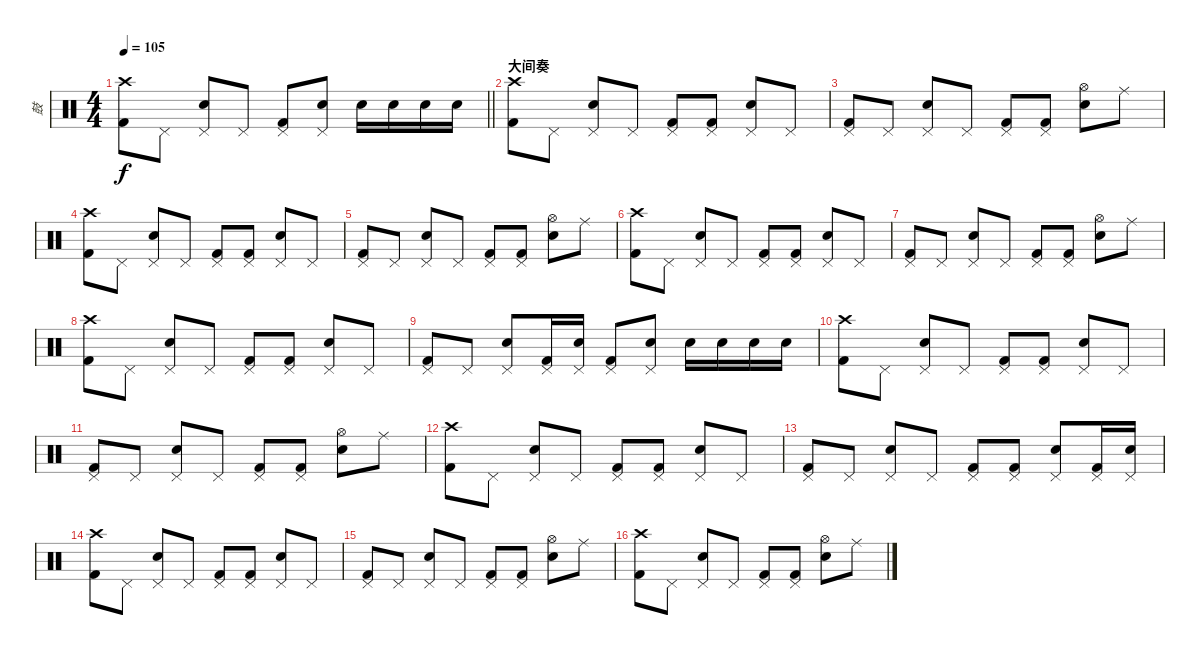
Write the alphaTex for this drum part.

\track ("鼓" "鼓") {instrument percussion}
\staff {score}
\articulation defaults
\ts (4 4)
\tempo 105
\clef neutral
\barLineRight lightlight
\ks c
("Crash high (hit)" "Kick (hit) 2").8{dy f} "Pedal Hi-Hat (hit)".8 ("Pedal Hi-Hat (hit)" "Electric Snare (hit)").8 "Pedal Hi-Hat (hit)".8 ("Pedal Hi-Hat (hit)" "Kick (hit) 2").8 ("Pedal Hi-Hat (hit)" "Electric Snare (hit)").8 "Electric Snare (hit)".16 "Electric Snare (hit)".16 "Electric Snare (hit)".16 "Electric Snare (hit)".16 |
\section ("" "大间奏")
("Crash high (hit)" "Kick (hit) 2").8 "Pedal Hi-Hat (hit)".8 ("Pedal Hi-Hat (hit)" "Electric Snare (hit)").8 "Pedal Hi-Hat (hit)".8 ("Pedal Hi-Hat (hit)" "Kick (hit) 2").8 ("Pedal Hi-Hat (hit)" "Kick (hit) 2").8 ("Pedal Hi-Hat (hit)" "Electric Snare (hit)").8 "Pedal Hi-Hat (hit)".8 |
("Pedal Hi-Hat (hit)" "Kick (hit) 2").8 "Pedal Hi-Hat (hit)".8 ("Pedal Hi-Hat (hit)" "Electric Snare (hit)").8 "Pedal Hi-Hat (hit)".8 ("Pedal Hi-Hat (hit)" "Kick (hit) 2").8 ("Pedal Hi-Hat (hit)" "Kick (hit) 2").8 ("Hi-Hat (open)" "Electric Snare (hit)").8 "Ride (middle)".8 |
("Crash high (hit)" "Kick (hit) 2").8 "Pedal Hi-Hat (hit)".8 ("Pedal Hi-Hat (hit)" "Electric Snare (hit)").8 "Pedal Hi-Hat (hit)".8 ("Pedal Hi-Hat (hit)" "Kick (hit) 2").8 ("Pedal Hi-Hat (hit)" "Kick (hit) 2").8 ("Pedal Hi-Hat (hit)" "Electric Snare (hit)").8 "Pedal Hi-Hat (hit)".8 |
("Pedal Hi-Hat (hit)" "Kick (hit) 2").8 "Pedal Hi-Hat (hit)".8 ("Pedal Hi-Hat (hit)" "Electric Snare (hit)").8 "Pedal Hi-Hat (hit)".8 ("Pedal Hi-Hat (hit)" "Kick (hit) 2").8 ("Pedal Hi-Hat (hit)" "Kick (hit) 2").8 ("Hi-Hat (open)" "Electric Snare (hit)").8 "Ride (middle)".8 |
("Crash high (hit)" "Kick (hit) 2").8 "Pedal Hi-Hat (hit)".8 ("Pedal Hi-Hat (hit)" "Electric Snare (hit)").8 "Pedal Hi-Hat (hit)".8 ("Pedal Hi-Hat (hit)" "Kick (hit) 2").8 ("Pedal Hi-Hat (hit)" "Kick (hit) 2").8 ("Pedal Hi-Hat (hit)" "Electric Snare (hit)").8 "Pedal Hi-Hat (hit)".8 |
("Pedal Hi-Hat (hit)" "Kick (hit) 2").8 "Pedal Hi-Hat (hit)".8 ("Pedal Hi-Hat (hit)" "Electric Snare (hit)").8 "Pedal Hi-Hat (hit)".8 ("Pedal Hi-Hat (hit)" "Kick (hit) 2").8 ("Pedal Hi-Hat (hit)" "Kick (hit) 2").8 ("Hi-Hat (open)" "Electric Snare (hit)").8 "Ride (middle)".8 |
("Crash high (hit)" "Kick (hit) 2").8 "Pedal Hi-Hat (hit)".8 ("Pedal Hi-Hat (hit)" "Electric Snare (hit)").8 "Pedal Hi-Hat (hit)".8 ("Pedal Hi-Hat (hit)" "Kick (hit) 2").8 ("Pedal Hi-Hat (hit)" "Kick (hit) 2").8 ("Pedal Hi-Hat (hit)" "Electric Snare (hit)").8 "Pedal Hi-Hat (hit)".8 |
("Pedal Hi-Hat (hit)" "Kick (hit) 2").8 "Pedal Hi-Hat (hit)".8 ("Pedal Hi-Hat (hit)" "Electric Snare (hit)").8 ("Pedal Hi-Hat (hit)" "Kick (hit) 2").16 ("Pedal Hi-Hat (hit)" "Electric Snare (hit)").16 ("Pedal Hi-Hat (hit)" "Kick (hit) 2").8 ("Pedal Hi-Hat (hit)" "Electric Snare (hit)").8 "Electric Snare (hit)".16 "Electric Snare (hit)".16 "Electric Snare (hit)".16 "Electric Snare (hit)".16 |
("Crash high (hit)" "Kick (hit) 2").8 "Pedal Hi-Hat (hit)".8 ("Pedal Hi-Hat (hit)" "Electric Snare (hit)").8 "Pedal Hi-Hat (hit)".8 ("Pedal Hi-Hat (hit)" "Kick (hit) 2").8 ("Pedal Hi-Hat (hit)" "Kick (hit) 2").8 ("Pedal Hi-Hat (hit)" "Electric Snare (hit)").8 "Pedal Hi-Hat (hit)".8 |
("Pedal Hi-Hat (hit)" "Kick (hit) 2").8 "Pedal Hi-Hat (hit)".8 ("Pedal Hi-Hat (hit)" "Electric Snare (hit)").8 "Pedal Hi-Hat (hit)".8 ("Pedal Hi-Hat (hit)" "Kick (hit) 2").8 ("Pedal Hi-Hat (hit)" "Kick (hit) 2").8 ("Hi-Hat (open)" "Electric Snare (hit)").8 "Ride (middle)".8 |
("Crash high (hit)" "Kick (hit) 2").8 "Pedal Hi-Hat (hit)".8 ("Pedal Hi-Hat (hit)" "Electric Snare (hit)").8 "Pedal Hi-Hat (hit)".8 ("Pedal Hi-Hat (hit)" "Kick (hit) 2").8 ("Pedal Hi-Hat (hit)" "Kick (hit) 2").8 ("Pedal Hi-Hat (hit)" "Electric Snare (hit)").8 "Pedal Hi-Hat (hit)".8 |
("Pedal Hi-Hat (hit)" "Kick (hit) 2").8 "Pedal Hi-Hat (hit)".8 ("Pedal Hi-Hat (hit)" "Electric Snare (hit)").8 "Pedal Hi-Hat (hit)".8 ("Pedal Hi-Hat (hit)" "Kick (hit) 2").8 ("Pedal Hi-Hat (hit)" "Kick (hit) 2").8 ("Pedal Hi-Hat (hit)" "Electric Snare (hit)").8 ("Pedal Hi-Hat (hit)" "Kick (hit) 2").16 ("Pedal Hi-Hat (hit)" "Electric Snare (hit)").16 |
("Crash high (hit)" "Kick (hit) 2").8 "Pedal Hi-Hat (hit)".8 ("Pedal Hi-Hat (hit)" "Electric Snare (hit)").8 "Pedal Hi-Hat (hit)".8 ("Pedal Hi-Hat (hit)" "Kick (hit) 2").8 ("Pedal Hi-Hat (hit)" "Kick (hit) 2").8 ("Pedal Hi-Hat (hit)" "Electric Snare (hit)").8 "Pedal Hi-Hat (hit)".8 |
("Pedal Hi-Hat (hit)" "Kick (hit) 2").8 "Pedal Hi-Hat (hit)".8 ("Pedal Hi-Hat (hit)" "Electric Snare (hit)").8 "Pedal Hi-Hat (hit)".8 ("Pedal Hi-Hat (hit)" "Kick (hit) 2").8 ("Pedal Hi-Hat (hit)" "Kick (hit) 2").8 ("Hi-Hat (open)" "Electric Snare (hit)").8 "Ride (middle)".8 |
("Crash high (hit)" "Kick (hit) 2").8 "Pedal Hi-Hat (hit)".8 ("Pedal Hi-Hat (hit)" "Electric Snare (hit)").8 "Pedal Hi-Hat (hit)".8 ("Pedal Hi-Hat (hit)" "Kick (hit) 2").8 ("Pedal Hi-Hat (hit)" "Kick (hit) 2").8 ("Hi-Hat (open)" "Electric Snare (hit)").8 "Ride (middle)".8
